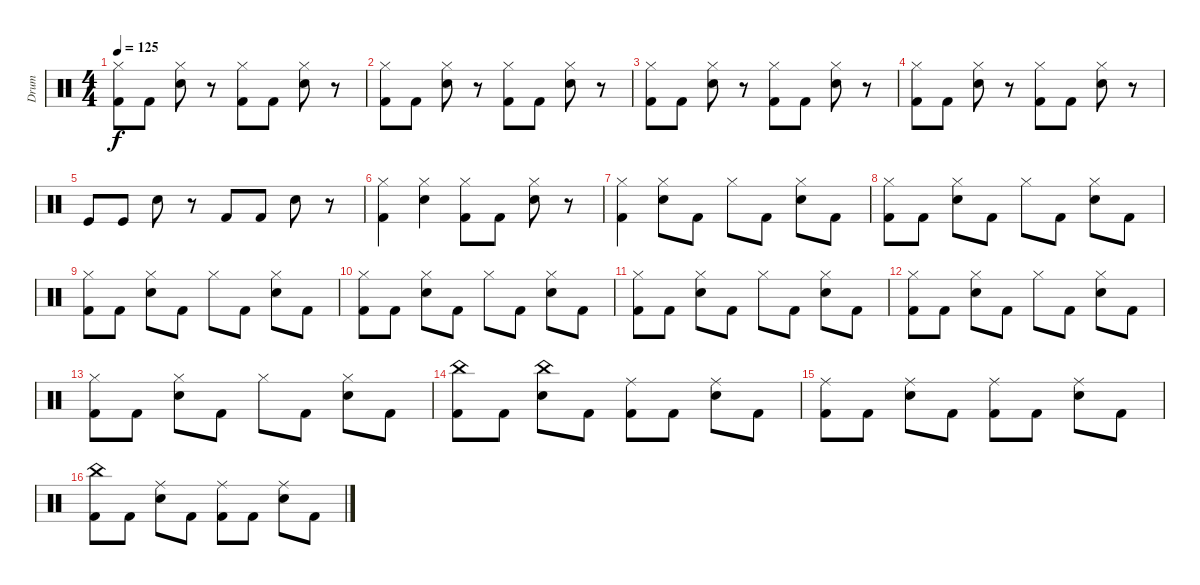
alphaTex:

\track ("Drum" "Drum") {instrument percussion}
\staff {score}
\articulation defaults
\ts (4 4)
\tempo 125
\clef neutral
\ks c
("Hi-Hat (closed)" "Kick (hit) 2").8{dy f} "Kick (hit) 2".8 ("Hi-Hat (closed)" "Snare (hit) 2").8 r.8 ("Hi-Hat (closed)" "Kick (hit) 2").8 "Kick (hit) 2".8 ("Hi-Hat (closed)" "Snare (hit) 2").8 r.8 |
("Hi-Hat (closed)" "Kick (hit) 2").8 "Kick (hit) 2".8 ("Hi-Hat (closed)" "Snare (hit) 2").8 r.8 ("Hi-Hat (closed)" "Kick (hit) 2").8 "Kick (hit) 2".8 ("Hi-Hat (closed)" "Snare (hit) 2").8 r.8 |
("Hi-Hat (closed)" "Kick (hit) 2").8 "Kick (hit) 2".8 ("Hi-Hat (closed)" "Snare (hit) 2").8 r.8 ("Hi-Hat (closed)" "Kick (hit) 2").8 "Kick (hit) 2".8 ("Hi-Hat (closed)" "Snare (hit) 2").8 r.8 |
("Hi-Hat (closed)" "Kick (hit) 2").8 "Kick (hit) 2".8 ("Hi-Hat (closed)" "Snare (hit) 2").8 r.8 ("Hi-Hat (closed)" "Kick (hit) 2").8 "Kick (hit) 2".8 ("Hi-Hat (closed)" "Snare (hit) 2").8 r.8 |
"Kick (hit)".8 "Kick (hit)".8 "Snare (hit) 2".8 r.8 "Kick (hit) 2".8 "Kick (hit) 2".8 "Electric Snare (hit)".8 r.8 |
("Hi-Hat (closed)" "Kick (hit) 2").4 ("Hi-Hat (closed)" "Snare (hit) 2").4 ("Hi-Hat (closed)" "Kick (hit) 2").8 "Kick (hit) 2".8 ("Hi-Hat (closed)" "Snare (hit) 2").8 r.8 |
("Hi-Hat (closed)" "Kick (hit) 2").4 ("Hi-Hat (closed)" "Snare (hit) 2").8 "Kick (hit) 2".8 "Hi-Hat (closed)".8 "Kick (hit) 2".8 ("Hi-Hat (closed)" "Snare (hit) 2").8 "Kick (hit) 2".8 |
("Hi-Hat (closed)" "Kick (hit) 2").8 "Kick (hit) 2".8 ("Hi-Hat (closed)" "Snare (hit) 2").8 "Kick (hit) 2".8 "Hi-Hat (closed)".8 "Kick (hit) 2".8 ("Hi-Hat (closed)" "Snare (hit) 2").8 "Kick (hit) 2".8 |
("Hi-Hat (closed)" "Kick (hit) 2").8 "Kick (hit) 2".8 ("Hi-Hat (closed)" "Snare (hit) 2").8 "Kick (hit) 2".8 "Hi-Hat (closed)".8 "Kick (hit) 2".8 ("Hi-Hat (closed)" "Snare (hit) 2").8 "Kick (hit) 2".8 |
("Hi-Hat (closed)" "Kick (hit) 2").8 "Kick (hit) 2".8 ("Hi-Hat (closed)" "Snare (hit) 2").8 "Kick (hit) 2".8 "Hi-Hat (closed)".8 "Kick (hit) 2".8 ("Hi-Hat (closed)" "Snare (hit) 2").8 "Kick (hit) 2".8 |
("Hi-Hat (closed)" "Kick (hit) 2").8 "Kick (hit) 2".8 ("Hi-Hat (closed)" "Snare (hit) 2").8 "Kick (hit) 2".8 "Hi-Hat (closed)".8 "Kick (hit) 2".8 ("Hi-Hat (closed)" "Snare (hit) 2").8 "Kick (hit) 2".8 |
("Hi-Hat (closed)" "Kick (hit) 2").8 "Kick (hit) 2".8 ("Hi-Hat (closed)" "Snare (hit) 2").8 "Kick (hit) 2".8 "Hi-Hat (closed)".8 "Kick (hit) 2".8 ("Hi-Hat (closed)" "Snare (hit) 2").8 "Kick (hit) 2".8 |
("Hi-Hat (closed)" "Kick (hit) 2").8 "Kick (hit) 2".8 ("Hi-Hat (closed)" "Snare (hit) 2").8 "Kick (hit) 2".8 "Hi-Hat (closed)".8 "Kick (hit) 2".8 ("Hi-Hat (closed)" "Snare (hit) 2").8 "Kick (hit) 2".8 |
("China (hit)" "Kick (hit) 2").8 "Kick (hit) 2".8 ("China (hit)" "Snare (hit) 2").8 "Kick (hit) 2".8 ("Ride (middle)" "Kick (hit) 2").8 "Kick (hit) 2".8 ("Ride (middle)" "Snare (hit) 2").8 "Kick (hit) 2".8 |
("Ride (middle)" "Kick (hit) 2").8 "Kick (hit) 2".8 ("Ride (middle)" "Snare (hit) 2").8 "Kick (hit) 2".8 ("Ride (middle)" "Kick (hit) 2").8 "Kick (hit) 2".8 ("Ride (middle)" "Snare (hit) 2").8 "Kick (hit) 2".8 |
("China (hit)" "Kick (hit) 2").8 "Kick (hit) 2".8 ("Ride (middle)" "Snare (hit) 2").8 "Kick (hit) 2".8 ("Ride (middle)" "Kick (hit) 2").8 "Kick (hit) 2".8 ("Ride (middle)" "Snare (hit) 2").8 "Kick (hit) 2".8
